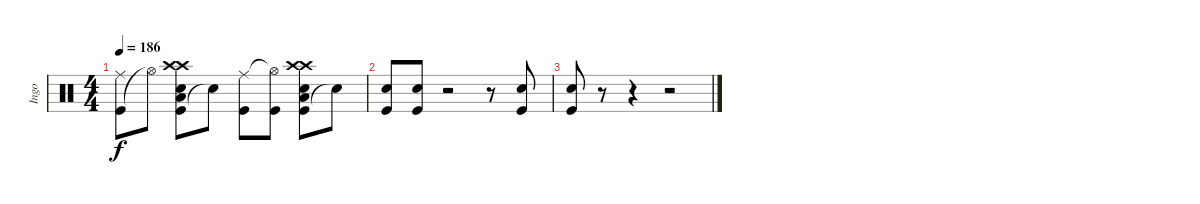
\track ("Ingo" "Ingo") {instrument percussion}
\staff {score}
\articulation defaults
\ts (4 4)
\tempo 186
\clef neutral
\ks c
("Kick (hit)" "Ride (middle)").8{dy f} "Hi-Hat (open)"{t}.8 ("Kick (hit)" "Low Tom (hit)" "Snare (hit) 2" "Crash high (hit)" "Crash high (hit)").8 "Snare (hit)"{t}.8 ("Kick (hit)" "Ride (middle)").8 ("Kick (hit)" "Hi-Hat (open)"{t}).8 ("Kick (hit)" "Low Tom (hit)" "Snare (hit) 2" "Crash high (hit)" "Crash high (hit)").8 "Snare (hit)"{t}.8 |
("Kick (hit)" "Snare (hit) 2").8 ("Kick (hit)" "Snare (hit) 2").8 r.2 r.8 ("Kick (hit)" "Snare (hit) 2").8 |
("Kick (hit)" "Snare (hit) 2").8 r.8 r.4 r.2
